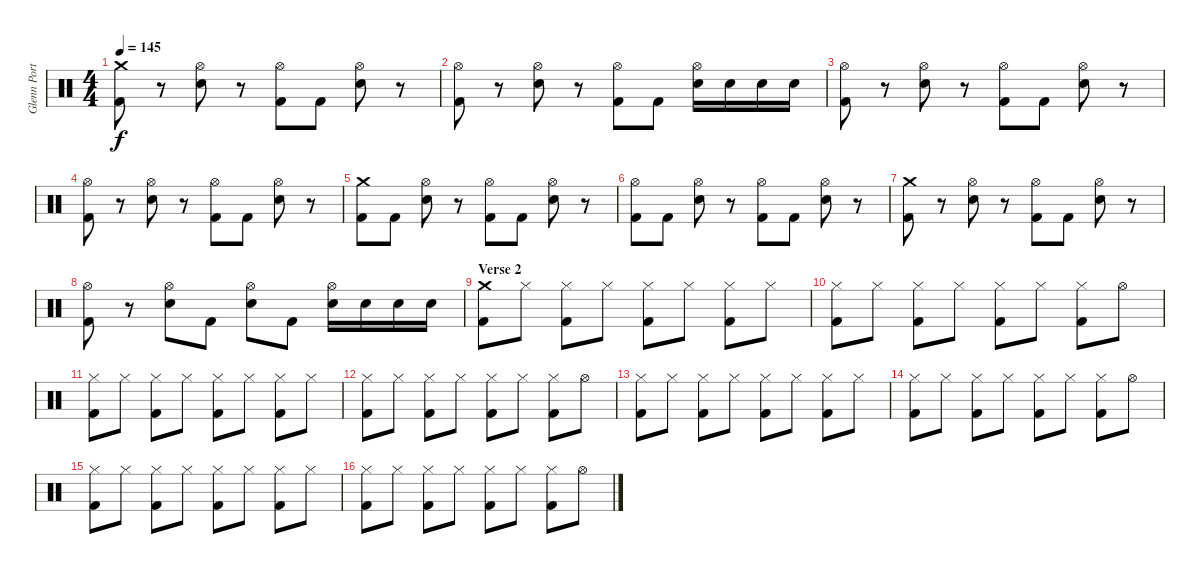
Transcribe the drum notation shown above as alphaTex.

\track ("Glenn Porter - Drums" "Glenn Port") {instrument percussion}
\staff {score}
\articulation defaults
\ts (4 4)
\tempo 145
\clef neutral
\ks c
("Crash medium (hit)" "Kick (hit) 2").8{dy f} r.8 ("Hi-Hat (open)" "Electric Snare (hit)").8 r.8 ("Hi-Hat (open)" "Kick (hit) 2").8 "Kick (hit) 2".8 ("Hi-Hat (open)" "Electric Snare (hit)").8 r.8 |
("Hi-Hat (open)" "Kick (hit) 2").8 r.8 ("Hi-Hat (open)" "Electric Snare (hit)").8 r.8 ("Hi-Hat (open)" "Kick (hit) 2").8 "Kick (hit) 2".8 ("Hi-Hat (open)" "Electric Snare (hit)").16 "Electric Snare (hit)".16 "Electric Snare (hit)".16 "Electric Snare (hit)".16 |
("Hi-Hat (open)" "Kick (hit) 2").8 r.8 ("Hi-Hat (open)" "Electric Snare (hit)").8 r.8 ("Hi-Hat (open)" "Kick (hit) 2").8 "Kick (hit) 2".8 ("Hi-Hat (open)" "Electric Snare (hit)").8 r.8 |
("Hi-Hat (open)" "Kick (hit) 2").8 r.8 ("Hi-Hat (open)" "Electric Snare (hit)").8 r.8 ("Hi-Hat (open)" "Kick (hit) 2").8 "Kick (hit) 2".8 ("Hi-Hat (open)" "Electric Snare (hit)").8 r.8 |
("Crash medium (hit)" "Kick (hit) 2").8 "Kick (hit) 2".8 ("Hi-Hat (open)" "Electric Snare (hit)").8 r.8 ("Hi-Hat (open)" "Kick (hit) 2").8 "Kick (hit) 2".8 ("Hi-Hat (open)" "Electric Snare (hit)").8 r.8 |
("Hi-Hat (open)" "Kick (hit) 2").8 "Kick (hit) 2".8 ("Hi-Hat (open)" "Electric Snare (hit)").8 r.8 ("Hi-Hat (open)" "Kick (hit) 2").8 "Kick (hit) 2".8 ("Hi-Hat (open)" "Electric Snare (hit)").8 r.8 |
("Crash medium (hit)" "Kick (hit) 2").8 r.8 ("Hi-Hat (open)" "Electric Snare (hit)").8 r.8 ("Hi-Hat (open)" "Kick (hit) 2").8 "Kick (hit) 2".8 ("Hi-Hat (open)" "Electric Snare (hit)").8 r.8 |
("Hi-Hat (open)" "Kick (hit) 2").8 r.8 ("Hi-Hat (open)" "Electric Snare (hit)").8 "Kick (hit) 2".8 ("Hi-Hat (open)" "Electric Snare (hit)").8 "Kick (hit) 2".8 ("Hi-Hat (open)" "Electric Snare (hit)").16 "Electric Snare (hit)".16 "Electric Snare (hit)".16 "Electric Snare (hit)".16 |
\section ("" "Verse 2")
("Crash medium (hit)" "Kick (hit) 2").8 "Hi-Hat (closed)".8 ("Hi-Hat (closed)" "Kick (hit) 2").8 "Hi-Hat (closed)".8 ("Hi-Hat (closed)" "Kick (hit) 2").8 "Hi-Hat (closed)".8 ("Hi-Hat (closed)" "Kick (hit) 2").8 "Hi-Hat (closed)".8 |
("Hi-Hat (closed)" "Kick (hit) 2").8 "Hi-Hat (closed)".8 ("Hi-Hat (closed)" "Kick (hit) 2").8 "Hi-Hat (closed)".8 ("Hi-Hat (closed)" "Kick (hit) 2").8 "Hi-Hat (closed)".8 ("Hi-Hat (closed)" "Kick (hit) 2").8 "Hi-Hat (open)".8 |
("Hi-Hat (closed)" "Kick (hit) 2").8 "Hi-Hat (closed)".8 ("Hi-Hat (closed)" "Kick (hit) 2").8 "Hi-Hat (closed)".8 ("Hi-Hat (closed)" "Kick (hit) 2").8 "Hi-Hat (closed)".8 ("Hi-Hat (closed)" "Kick (hit) 2").8 "Hi-Hat (closed)".8 |
("Hi-Hat (closed)" "Kick (hit) 2").8 "Hi-Hat (closed)".8 ("Hi-Hat (closed)" "Kick (hit) 2").8 "Hi-Hat (closed)".8 ("Hi-Hat (closed)" "Kick (hit) 2").8 "Hi-Hat (closed)".8 ("Hi-Hat (closed)" "Kick (hit) 2").8 "Hi-Hat (open)".8 |
("Hi-Hat (closed)" "Kick (hit) 2").8 "Hi-Hat (closed)".8 ("Hi-Hat (closed)" "Kick (hit) 2").8 "Hi-Hat (closed)".8 ("Hi-Hat (closed)" "Kick (hit) 2").8 "Hi-Hat (closed)".8 ("Hi-Hat (closed)" "Kick (hit) 2").8 "Hi-Hat (closed)".8 |
("Hi-Hat (closed)" "Kick (hit) 2").8 "Hi-Hat (closed)".8 ("Hi-Hat (closed)" "Kick (hit) 2").8 "Hi-Hat (closed)".8 ("Hi-Hat (closed)" "Kick (hit) 2").8 "Hi-Hat (closed)".8 ("Hi-Hat (closed)" "Kick (hit) 2").8 "Hi-Hat (open)".8 |
("Hi-Hat (closed)" "Kick (hit) 2").8 "Hi-Hat (closed)".8 ("Hi-Hat (closed)" "Kick (hit) 2").8 "Hi-Hat (closed)".8 ("Hi-Hat (closed)" "Kick (hit) 2").8 "Hi-Hat (closed)".8 ("Hi-Hat (closed)" "Kick (hit) 2").8 "Hi-Hat (closed)".8 |
("Hi-Hat (closed)" "Kick (hit) 2").8 "Hi-Hat (closed)".8 ("Hi-Hat (closed)" "Kick (hit) 2").8 "Hi-Hat (closed)".8 ("Hi-Hat (closed)" "Kick (hit) 2").8 "Hi-Hat (closed)".8 ("Hi-Hat (closed)" "Kick (hit) 2").8 "Hi-Hat (open)".8
